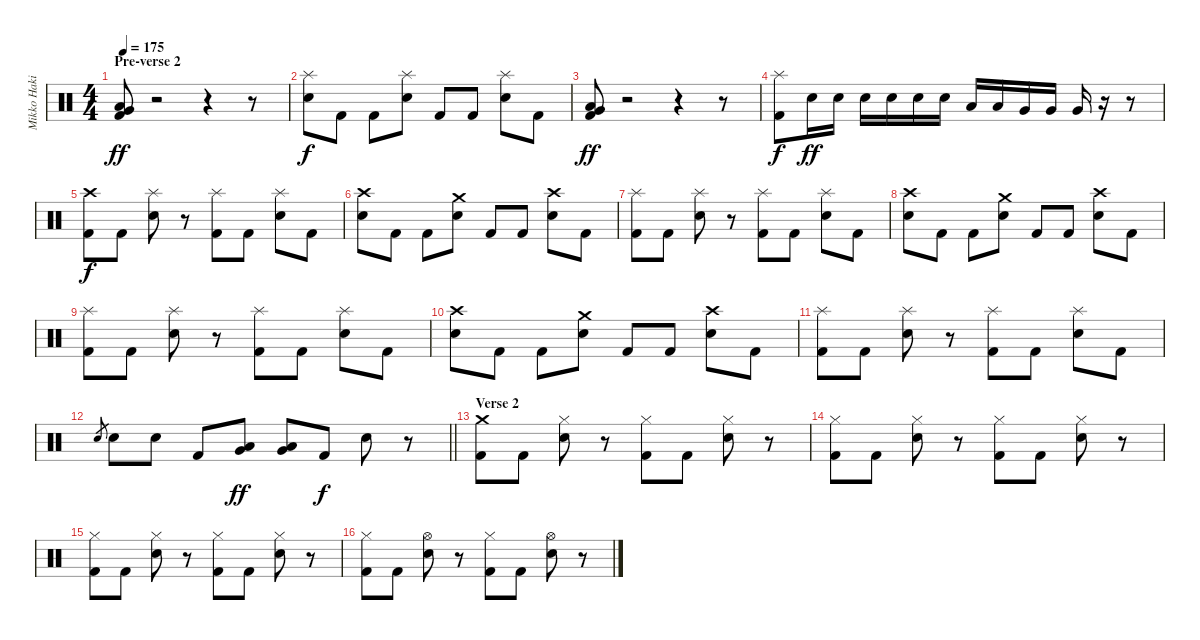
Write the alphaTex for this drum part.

\track ("Mikko Hakila - Drums" "Mikko Haki") {instrument percussion}
\staff {score}
\articulation defaults
\ts (4 4)
\section ("" "Pre-verse 2")
\tempo 175
\clef neutral
\ks c
("Low Tom (hit)" "Very Low Tom (hit)" "Kick (hit) 2").8{dy ff} r.2 r.4 r.8 |
("Splash (hit)" "Electric Snare (hit)").8{dy f} "Kick (hit) 2".8 "Kick (hit) 2".8 ("Splash (hit)" "Electric Snare (hit)").8 "Kick (hit) 2".8 "Kick (hit) 2".8 ("Splash (hit)" "Electric Snare (hit)").8 "Kick (hit) 2".8 |
("Low Tom (hit)" "Very Low Tom (hit)" "Kick (hit) 2").8{dy ff} r.2 r.4 r.8 |
("Splash (hit)" "Kick (hit) 2").8{dy f} "Electric Snare (hit)".16{dy ff} "Electric Snare (hit)".16 "Electric Snare (hit)".16 "Electric Snare (hit)".16 "Electric Snare (hit)".16 "Electric Snare (hit)".16 "Low Tom (hit)".16 "Low Tom (hit)".16 "Very Low Tom (hit)".16 "Very Low Tom (hit)".16 "Very Low Tom (hit)".16 r.16 r.8 |
("Crash high (hit)" "Kick (hit) 2").8{dy f} "Kick (hit) 2".8 ("Splash (hit)" "Electric Snare (hit)").8 r.8 ("Splash (hit)" "Kick (hit) 2").8 "Kick (hit) 2".8 ("Splash (hit)" "Electric Snare (hit)").8 "Kick (hit) 2".8 |
("Crash high (hit)" "Electric Snare (hit)").8 "Kick (hit) 2".8 "Kick (hit) 2".8 ("Crash medium (hit)" "Electric Snare (hit)").8 "Kick (hit) 2".8 "Kick (hit) 2".8 ("Crash high (hit)" "Electric Snare (hit)").8 "Kick (hit) 2".8 |
("Splash (hit)" "Kick (hit) 2").8 "Kick (hit) 2".8 ("Splash (hit)" "Electric Snare (hit)").8 r.8 ("Splash (hit)" "Kick (hit) 2").8 "Kick (hit) 2".8 ("Splash (hit)" "Electric Snare (hit)").8 "Kick (hit) 2".8 |
("Crash high (hit)" "Electric Snare (hit)").8 "Kick (hit) 2".8 "Kick (hit) 2".8 ("Crash medium (hit)" "Electric Snare (hit)").8 "Kick (hit) 2".8 "Kick (hit) 2".8 ("Crash high (hit)" "Electric Snare (hit)").8 "Kick (hit) 2".8 |
("Splash (hit)" "Kick (hit) 2").8 "Kick (hit) 2".8 ("Splash (hit)" "Electric Snare (hit)").8 r.8 ("Splash (hit)" "Kick (hit) 2").8 "Kick (hit) 2".8 ("Splash (hit)" "Electric Snare (hit)").8 "Kick (hit) 2".8 |
("Crash high (hit)" "Electric Snare (hit)").8 "Kick (hit) 2".8 "Kick (hit) 2".8 ("Crash medium (hit)" "Electric Snare (hit)").8 "Kick (hit) 2".8 "Kick (hit) 2".8 ("Crash high (hit)" "Electric Snare (hit)").8 "Kick (hit) 2".8 |
("Splash (hit)" "Kick (hit) 2").8 "Kick (hit) 2".8 ("Splash (hit)" "Electric Snare (hit)").8 r.8 ("Splash (hit)" "Kick (hit) 2").8 "Kick (hit) 2".8 ("Splash (hit)" "Electric Snare (hit)").8 "Kick (hit) 2".8 |
\barLineRight lightlight "Electric Snare (hit)".8{gr} "Electric Snare (hit)".8 "Electric Snare (hit)".8 "Kick (hit) 2".8
("Low Tom (hit)" "Very Low Tom (hit)").8{dy ff} ("Low Tom (hit)" "Very Low Tom (hit)").8 "Kick (hit) 2".8{dy f} "Electric Snare (hit)".8 r.8 |
\section ("" "Verse 2")
("Crash medium (hit)" "Kick (hit) 2").8 "Kick (hit) 2".8 ("Hi-Hat (closed)" "Electric Snare (hit)").8 r.8 ("Hi-Hat (closed)" "Kick (hit) 2").8 "Kick (hit) 2".8 ("Hi-Hat (closed)" "Electric Snare (hit)").8 r.8 |
("Hi-Hat (closed)" "Kick (hit) 2").8 "Kick (hit) 2".8 ("Hi-Hat (closed)" "Electric Snare (hit)").8 r.8 ("Hi-Hat (closed)" "Kick (hit) 2").8 "Kick (hit) 2".8 ("Hi-Hat (closed)" "Electric Snare (hit)").8 r.8 |
("Hi-Hat (closed)" "Kick (hit) 2").8 "Kick (hit) 2".8 ("Hi-Hat (closed)" "Electric Snare (hit)").8 r.8 ("Hi-Hat (closed)" "Kick (hit) 2").8 "Kick (hit) 2".8 ("Hi-Hat (closed)" "Electric Snare (hit)").8 r.8 |
("Hi-Hat (closed)" "Kick (hit) 2").8 "Kick (hit) 2".8 ("Hi-Hat (open)" "Electric Snare (hit)").8 r.8 ("Hi-Hat (closed)" "Kick (hit) 2").8 "Kick (hit) 2".8 ("Hi-Hat (open)" "Electric Snare (hit)").8 r.8
